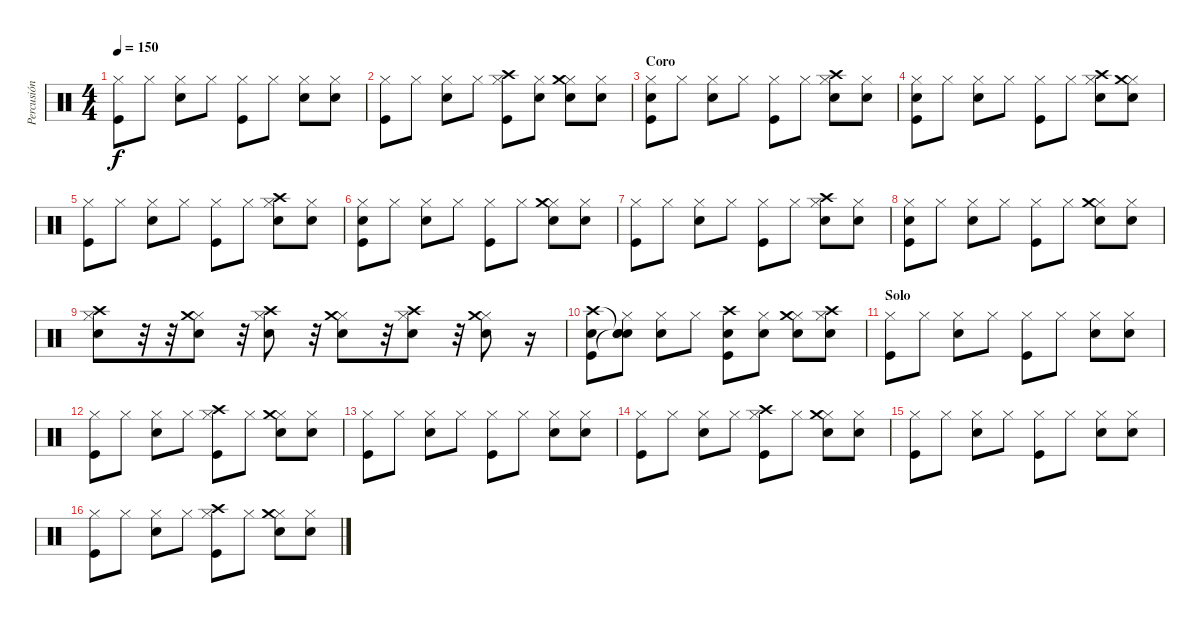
\track ("Percusión" "Percusión") {instrument percussion}
\staff {score}
\articulation defaults
\ts (4 4)
\tempo 150
\clef neutral
\ks c
("Hi-Hat (closed)" "Kick (hit)").8{dy f} "Hi-Hat (closed)".8 ("Hi-Hat (closed)" "Snare (hit) 2").8 "Hi-Hat (closed)".8 ("Hi-Hat (closed)" "Kick (hit)").8 "Hi-Hat (closed)".8 ("Hi-Hat (closed)" "Snare (hit) 2").8 ("Hi-Hat (closed)" "Snare (hit) 2").8 |
("Hi-Hat (closed)" "Kick (hit)").8 "Hi-Hat (closed)".8 ("Hi-Hat (closed)" "Snare (hit) 2").8 "Hi-Hat (closed)".8 ("Hi-Hat (closed)" "Kick (hit)" "Crash high (hit)").8 ("Hi-Hat (closed)" "Snare (hit) 2").8 ("Hi-Hat (closed)" "Snare (hit) 2" "Crash medium (hit)").8 ("Hi-Hat (closed)" "Snare (hit) 2").8 |
\section ("" "Coro")
("Hi-Hat (closed)" "Snare (hit) 2" "Kick (hit)").8 "Hi-Hat (closed)".8 ("Hi-Hat (closed)" "Snare (hit) 2").8 "Hi-Hat (closed)".8 ("Hi-Hat (closed)" "Kick (hit)").8 "Hi-Hat (closed)".8 ("Hi-Hat (closed)" "Snare (hit) 2" "Crash high (hit)").8 ("Hi-Hat (closed)" "Snare (hit) 2").8 |
("Hi-Hat (closed)" "Snare (hit) 2" "Kick (hit)").8 "Hi-Hat (closed)".8 ("Hi-Hat (closed)" "Snare (hit) 2").8 "Hi-Hat (closed)".8 ("Hi-Hat (closed)" "Kick (hit)").8 "Hi-Hat (closed)".8 ("Hi-Hat (closed)" "Snare (hit) 2" "Crash high (hit)").8 ("Hi-Hat (closed)" "Snare (hit) 2" "Crash medium (hit)").8 |
("Hi-Hat (closed)" "Kick (hit)").8 "Hi-Hat (closed)".8 ("Hi-Hat (closed)" "Snare (hit) 2").8 "Hi-Hat (closed)".8 ("Hi-Hat (closed)" "Kick (hit)").8 "Hi-Hat (closed)".8 ("Hi-Hat (closed)" "Snare (hit) 2" "Crash high (hit)").8 ("Hi-Hat (closed)" "Snare (hit) 2").8 |
("Hi-Hat (closed)" "Snare (hit) 2" "Kick (hit)").8 "Hi-Hat (closed)".8 ("Hi-Hat (closed)" "Snare (hit) 2").8 "Hi-Hat (closed)".8 ("Hi-Hat (closed)" "Kick (hit)").8 "Hi-Hat (closed)".8 ("Hi-Hat (closed)" "Snare (hit) 2" "Crash medium (hit)").8 ("Hi-Hat (closed)" "Snare (hit) 2").8 |
("Hi-Hat (closed)" "Kick (hit)").8 "Hi-Hat (closed)".8 ("Hi-Hat (closed)" "Snare (hit) 2").8 "Hi-Hat (closed)".8 ("Hi-Hat (closed)" "Kick (hit)").8 "Hi-Hat (closed)".8 ("Hi-Hat (closed)" "Snare (hit) 2" "Crash high (hit)").8 ("Hi-Hat (closed)" "Snare (hit) 2").8 |
("Hi-Hat (closed)" "Snare (hit) 2" "Kick (hit)").8 "Hi-Hat (closed)".8 ("Hi-Hat (closed)" "Snare (hit) 2").8 "Hi-Hat (closed)".8 ("Hi-Hat (closed)" "Kick (hit)").8 "Hi-Hat (closed)".8 ("Hi-Hat (closed)" "Snare (hit) 2" "Crash medium (hit)").8 ("Hi-Hat (closed)" "Snare (hit) 2").8 |
("Hi-Hat (closed)" "Snare (hit) 2" "Crash high (hit)").8 r.32 r.32 ("Hi-Hat (closed)" "Snare (hit) 2" "Crash medium (hit)").8 r.32 ("Hi-Hat (closed)" "Snare (hit) 2" "Crash high (hit)").8 r.32 ("Hi-Hat (closed)" "Snare (hit) 2" "Crash medium (hit)").8 r.32 ("Hi-Hat (closed)" "Snare (hit) 2" "Crash high (hit)").8 r.32 ("Hi-Hat (closed)" "Snare (hit) 2" "Crash medium (hit)").8 r.16 |
("Snare (hit) 2" "Kick (hit)" "Crash high (hit)").8 ("Hi-Hat (closed)" "Snare (hit)"{t} "Snare (hit)"{t} "Snare (hit)").8 ("Hi-Hat (closed)" "Snare (hit) 2").8 "Hi-Hat (closed)".8 ("Snare (hit) 2" "Kick (hit)" "Crash high (hit)").8 ("Hi-Hat (closed)" "Snare (hit) 2").8 ("Hi-Hat (closed)" "Snare (hit) 2" "Crash medium (hit)").8 ("Hi-Hat (closed)" "Snare (hit) 2" "Crash high (hit)").8 |
\section ("" "Solo")
("Hi-Hat (closed)" "Kick (hit)").8 "Hi-Hat (closed)".8 ("Hi-Hat (closed)" "Snare (hit) 2").8 "Hi-Hat (closed)".8 ("Hi-Hat (closed)" "Kick (hit)").8 "Hi-Hat (closed)".8 ("Hi-Hat (closed)" "Snare (hit) 2").8 ("Hi-Hat (closed)" "Snare (hit) 2").8 |
("Hi-Hat (closed)" "Kick (hit)").8 "Hi-Hat (closed)".8 ("Hi-Hat (closed)" "Snare (hit) 2").8 "Hi-Hat (closed)".8 ("Hi-Hat (closed)" "Kick (hit)" "Crash high (hit)").8 "Hi-Hat (closed)".8 ("Hi-Hat (closed)" "Snare (hit) 2" "Crash medium (hit)").8 ("Hi-Hat (closed)" "Snare (hit) 2").8 |
("Hi-Hat (closed)" "Kick (hit)").8 "Hi-Hat (closed)".8 ("Hi-Hat (closed)" "Snare (hit) 2").8 "Hi-Hat (closed)".8 ("Hi-Hat (closed)" "Kick (hit)").8 "Hi-Hat (closed)".8 ("Hi-Hat (closed)" "Snare (hit) 2").8 ("Hi-Hat (closed)" "Snare (hit) 2").8 |
("Hi-Hat (closed)" "Kick (hit)").8 "Hi-Hat (closed)".8 ("Hi-Hat (closed)" "Snare (hit) 2").8 "Hi-Hat (closed)".8 ("Hi-Hat (closed)" "Kick (hit)" "Crash high (hit)").8 "Hi-Hat (closed)".8 ("Hi-Hat (closed)" "Snare (hit) 2" "Crash medium (hit)").8 ("Hi-Hat (closed)" "Snare (hit) 2").8 |
("Hi-Hat (closed)" "Kick (hit)").8 "Hi-Hat (closed)".8 ("Hi-Hat (closed)" "Snare (hit) 2").8 "Hi-Hat (closed)".8 ("Hi-Hat (closed)" "Kick (hit)").8 "Hi-Hat (closed)".8 ("Hi-Hat (closed)" "Snare (hit) 2").8 ("Hi-Hat (closed)" "Snare (hit) 2").8 |
("Hi-Hat (closed)" "Kick (hit)").8 "Hi-Hat (closed)".8 ("Hi-Hat (closed)" "Snare (hit) 2").8 "Hi-Hat (closed)".8 ("Hi-Hat (closed)" "Kick (hit)" "Crash high (hit)").8 "Hi-Hat (closed)".8 ("Hi-Hat (closed)" "Snare (hit) 2" "Crash medium (hit)").8 ("Hi-Hat (closed)" "Snare (hit) 2").8
